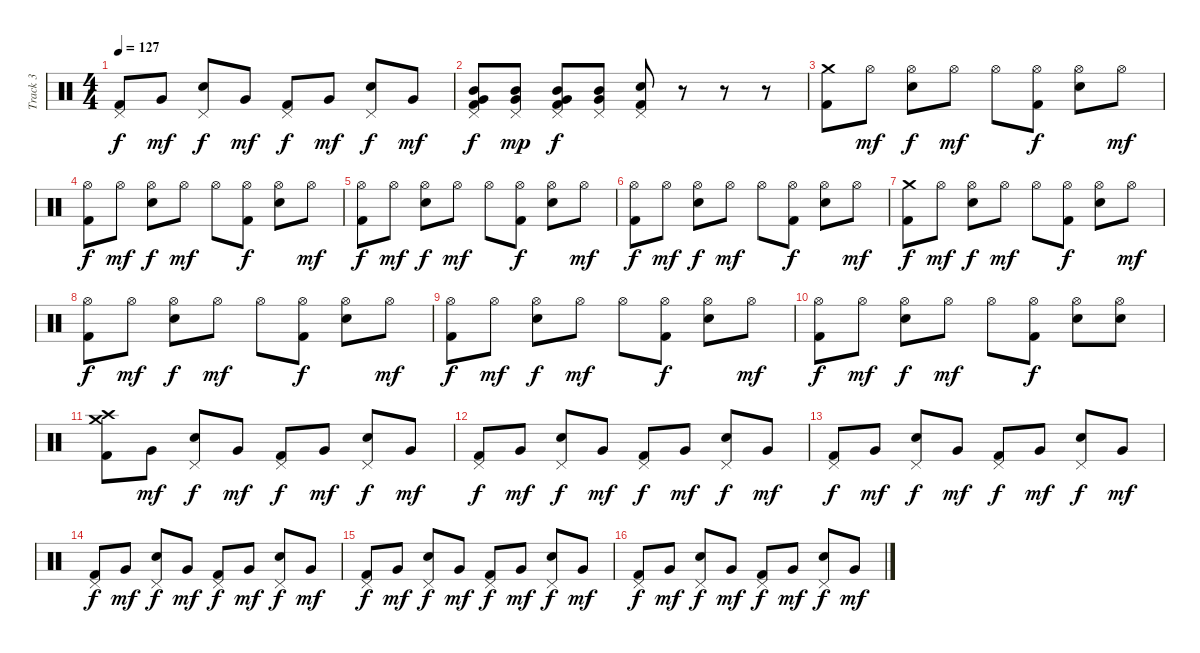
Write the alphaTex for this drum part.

\track ("Track 3" "Track 3") {instrument percussion}
\staff {score}
\articulation defaults
\ts (4 4)
\tempo 127
\clef neutral
\ks c
("Pedal Hi-Hat (hit)" "Kick (hit) 2").8{dy f} "Very Low Tom (hit)".8{dy mf} ("Pedal Hi-Hat (hit)" "Electric Snare (hit)").8{dy f} "Very Low Tom (hit)".8{dy mf} ("Pedal Hi-Hat (hit)" "Kick (hit) 2").8{dy f} "Very Low Tom (hit)".8{dy mf} ("Pedal Hi-Hat (hit)" "Electric Snare (hit)").8{dy f} "Very Low Tom (hit)".8{dy mf} |
("Pedal Hi-Hat (hit)" "Mid Tom (hit)" "Very Low Tom (hit)" "Kick (hit) 2").8{dy f} ("Pedal Hi-Hat (hit)" "Mid Tom (hit)" "Very Low Tom (hit)").8{dy mp} ("Pedal Hi-Hat (hit)" "Mid Tom (hit)" "Very Low Tom (hit)" "Kick (hit) 2").8{dy f} ("Pedal Hi-Hat (hit)" "Mid Tom (hit)" "Very Low Tom (hit)").8 ("Pedal Hi-Hat (hit)" "Snare (hit) 2" "Kick (hit) 2").8 r.8 r.8 r.8 |
("Crash medium (hit)" "Kick (hit) 2").8 "Hi-Hat (open)".8{dy mf} ("Hi-Hat (open)" "Snare (hit) 2").8{dy f} "Hi-Hat (open)".8{dy mf} "Hi-Hat (open)".8 ("Hi-Hat (open)" "Kick (hit) 2").8{dy f} ("Hi-Hat (open)" "Snare (hit) 2").8 "Hi-Hat (open)".8{dy mf} |
("Hi-Hat (open)" "Kick (hit) 2").8{dy f} "Hi-Hat (open)".8{dy mf} ("Hi-Hat (open)" "Snare (hit) 2").8{dy f} "Hi-Hat (open)".8{dy mf} "Hi-Hat (open)".8 ("Hi-Hat (open)" "Kick (hit) 2").8{dy f} ("Hi-Hat (open)" "Snare (hit) 2").8 "Hi-Hat (open)".8{dy mf} |
("Hi-Hat (open)" "Kick (hit) 2").8{dy f} "Hi-Hat (open)".8{dy mf} ("Hi-Hat (open)" "Snare (hit) 2").8{dy f} "Hi-Hat (open)".8{dy mf} "Hi-Hat (open)".8 ("Hi-Hat (open)" "Kick (hit) 2").8{dy f} ("Hi-Hat (open)" "Snare (hit) 2").8 "Hi-Hat (open)".8{dy mf} |
("Hi-Hat (open)" "Kick (hit) 2").8{dy f} "Hi-Hat (open)".8{dy mf} ("Hi-Hat (open)" "Snare (hit) 2").8{dy f} "Hi-Hat (open)".8{dy mf} "Hi-Hat (open)".8 ("Hi-Hat (open)" "Kick (hit) 2").8{dy f} ("Hi-Hat (open)" "Snare (hit) 2").8 "Hi-Hat (open)".8{dy mf} |
("Crash medium (hit)" "Kick (hit) 2").8{dy f} "Hi-Hat (open)".8{dy mf} ("Hi-Hat (open)" "Snare (hit) 2").8{dy f} "Hi-Hat (open)".8{dy mf} "Hi-Hat (open)".8 ("Hi-Hat (open)" "Kick (hit) 2").8{dy f} ("Hi-Hat (open)" "Snare (hit) 2").8 "Hi-Hat (open)".8{dy mf} |
("Hi-Hat (open)" "Kick (hit) 2").8{dy f} "Hi-Hat (open)".8{dy mf} ("Hi-Hat (open)" "Snare (hit) 2").8{dy f} "Hi-Hat (open)".8{dy mf} "Hi-Hat (open)".8 ("Hi-Hat (open)" "Kick (hit) 2").8{dy f} ("Hi-Hat (open)" "Snare (hit) 2").8 "Hi-Hat (open)".8{dy mf} |
("Hi-Hat (open)" "Kick (hit) 2").8{dy f} "Hi-Hat (open)".8{dy mf} ("Hi-Hat (open)" "Snare (hit) 2").8{dy f} "Hi-Hat (open)".8{dy mf} "Hi-Hat (open)".8 ("Hi-Hat (open)" "Kick (hit) 2").8{dy f} ("Hi-Hat (open)" "Snare (hit) 2").8 "Hi-Hat (open)".8{dy mf} |
("Hi-Hat (open)" "Kick (hit) 2").8{dy f} "Hi-Hat (open)".8{dy mf} ("Hi-Hat (open)" "Snare (hit) 2").8{dy f} "Hi-Hat (open)".8{dy mf} "Hi-Hat (open)".8 ("Hi-Hat (open)" "Kick (hit) 2").8{dy f} ("Hi-Hat (open)" "Snare (hit) 2").8 ("Hi-Hat (open)" "Snare (hit) 2").8 |
("Crash high (hit)" "Crash medium (hit)" "Kick (hit) 2").8 "Very Low Tom (hit)".8{dy mf} ("Pedal Hi-Hat (hit)" "Electric Snare (hit)").8{dy f} "Very Low Tom (hit)".8{dy mf} ("Pedal Hi-Hat (hit)" "Kick (hit) 2").8{dy f} "Very Low Tom (hit)".8{dy mf} ("Pedal Hi-Hat (hit)" "Electric Snare (hit)").8{dy f} "Very Low Tom (hit)".8{dy mf} |
("Pedal Hi-Hat (hit)" "Kick (hit) 2").8{dy f} "Very Low Tom (hit)".8{dy mf} ("Pedal Hi-Hat (hit)" "Electric Snare (hit)").8{dy f} "Very Low Tom (hit)".8{dy mf} ("Pedal Hi-Hat (hit)" "Kick (hit) 2").8{dy f} "Very Low Tom (hit)".8{dy mf} ("Pedal Hi-Hat (hit)" "Electric Snare (hit)").8{dy f} "Very Low Tom (hit)".8{dy mf} |
("Pedal Hi-Hat (hit)" "Kick (hit) 2").8{dy f} "Very Low Tom (hit)".8{dy mf} ("Pedal Hi-Hat (hit)" "Electric Snare (hit)").8{dy f} "Very Low Tom (hit)".8{dy mf} ("Pedal Hi-Hat (hit)" "Kick (hit) 2").8{dy f} "Very Low Tom (hit)".8{dy mf} ("Pedal Hi-Hat (hit)" "Electric Snare (hit)").8{dy f} "Very Low Tom (hit)".8{dy mf} |
("Pedal Hi-Hat (hit)" "Kick (hit) 2").8{dy f} "Very Low Tom (hit)".8{dy mf} ("Pedal Hi-Hat (hit)" "Electric Snare (hit)").8{dy f} "Very Low Tom (hit)".8{dy mf} ("Pedal Hi-Hat (hit)" "Kick (hit) 2").8{dy f} "Very Low Tom (hit)".8{dy mf} ("Pedal Hi-Hat (hit)" "Electric Snare (hit)").8{dy f} "Very Low Tom (hit)".8{dy mf} |
("Pedal Hi-Hat (hit)" "Kick (hit) 2").8{dy f} "Very Low Tom (hit)".8{dy mf} ("Pedal Hi-Hat (hit)" "Electric Snare (hit)").8{dy f} "Very Low Tom (hit)".8{dy mf} ("Pedal Hi-Hat (hit)" "Kick (hit) 2").8{dy f} "Very Low Tom (hit)".8{dy mf} ("Pedal Hi-Hat (hit)" "Electric Snare (hit)").8{dy f} "Very Low Tom (hit)".8{dy mf} |
("Pedal Hi-Hat (hit)" "Kick (hit) 2").8{dy f} "Very Low Tom (hit)".8{dy mf} ("Pedal Hi-Hat (hit)" "Electric Snare (hit)").8{dy f} "Very Low Tom (hit)".8{dy mf} ("Pedal Hi-Hat (hit)" "Kick (hit) 2").8{dy f} "Very Low Tom (hit)".8{dy mf} ("Pedal Hi-Hat (hit)" "Electric Snare (hit)").8{dy f} "Very Low Tom (hit)".8{dy mf}
